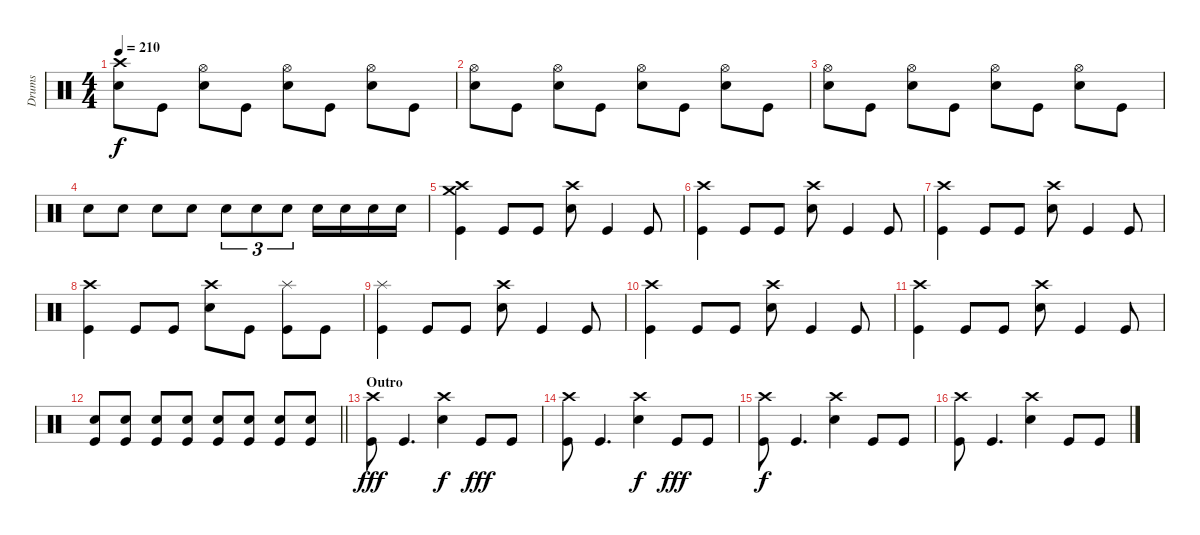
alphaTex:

\track ("Drums" "Drums") {instrument percussion}
\staff {score}
\articulation defaults
\ts (4 4)
\tempo 210
\clef neutral
\ks c
("Crash high (hit)" "Snare (hit) 2").8{dy f} "Kick (hit)".8 ("Hi-Hat (open)" "Snare (hit) 2").8 "Kick (hit)".8 ("Hi-Hat (open)" "Snare (hit) 2").8 "Kick (hit)".8 ("Hi-Hat (open)" "Snare (hit) 2").8 "Kick (hit)".8 |
("Hi-Hat (open)" "Snare (hit) 2").8 "Kick (hit)".8 ("Hi-Hat (open)" "Snare (hit) 2").8 "Kick (hit)".8 ("Hi-Hat (open)" "Snare (hit) 2").8 "Kick (hit)".8 ("Hi-Hat (open)" "Snare (hit) 2").8 "Kick (hit)".8 |
("Hi-Hat (open)" "Snare (hit) 2").8 "Kick (hit)".8 ("Hi-Hat (open)" "Snare (hit) 2").8 "Kick (hit)".8 ("Hi-Hat (open)" "Snare (hit) 2").8 "Kick (hit)".8 ("Hi-Hat (open)" "Snare (hit) 2").8 "Kick (hit)".8 |
"Snare (hit) 2".8 "Snare (hit) 2".8 "Snare (hit) 2".8 "Snare (hit) 2".8 "Snare (hit) 2".8{tu (3 2)} "Snare (hit) 2".8{tu (3 2)} "Snare (hit) 2".8{tu (3 2)} "Snare (hit) 2".16 "Snare (hit) 2".16 "Snare (hit) 2".16 "Snare (hit) 2".16 |
("Crash high (hit)" "Crash medium (hit)" "Kick (hit)").4 "Kick (hit)".8 "Kick (hit)".8 ("Crash high (hit)" "Snare (hit) 2").8 "Kick (hit)".4 "Kick (hit)".8 |
("Crash high (hit)" "Kick (hit)").4 "Kick (hit)".8 "Kick (hit)".8 ("Crash high (hit)" "Snare (hit) 2").8 "Kick (hit)".4 "Kick (hit)".8 |
("Crash high (hit)" "Kick (hit)").4 "Kick (hit)".8 "Kick (hit)".8 ("Crash high (hit)" "Snare (hit) 2").8 "Kick (hit)".4 "Kick (hit)".8 |
("Crash high (hit)" "Kick (hit)").4 "Kick (hit)".8 "Kick (hit)".8 ("Crash high (hit)" "Snare (hit) 2").8 "Kick (hit)".8 ("Splash (hit)" "Kick (hit)").8 "Kick (hit)".8 |
("Splash (hit)" "Kick (hit)").4 "Kick (hit)".8 "Kick (hit)".8 ("Crash high (hit)" "Snare (hit) 2").8 "Kick (hit)".4 "Kick (hit)".8 |
("Crash high (hit)" "Kick (hit)").4 "Kick (hit)".8 "Kick (hit)".8 ("Crash high (hit)" "Snare (hit) 2").8 "Kick (hit)".4 "Kick (hit)".8 |
("Crash high (hit)" "Kick (hit)").4 "Kick (hit)".8 "Kick (hit)".8 ("Crash high (hit)" "Snare (hit) 2").8 "Kick (hit)".4 "Kick (hit)".8 |
\barLineRight lightlight
("Snare (hit) 2" "Kick (hit)").8 ("Snare (hit) 2" "Kick (hit)").8 ("Snare (hit) 2" "Kick (hit)").8 ("Snare (hit) 2" "Kick (hit)").8 ("Snare (hit) 2" "Kick (hit)").8 ("Snare (hit) 2" "Kick (hit)").8 ("Snare (hit) 2" "Kick (hit)").8 ("Snare (hit) 2" "Kick (hit)").8 |
\section ("" "Outro")
("Crash high (hit)" "Kick (hit)").8{dy fff} "Kick (hit)".4{d} ("Crash high (hit)" "Snare (hit) 2").4{dy f} "Kick (hit)".8{dy fff} "Kick (hit)".8 |
("Crash high (hit)" "Kick (hit)").8 "Kick (hit)".4{d} ("Crash high (hit)" "Snare (hit) 2").4{dy f} "Kick (hit)".8{dy fff} "Kick (hit)".8 |
("Crash high (hit)" "Kick (hit)").8{dy f} "Kick (hit)".4{d} ("Crash high (hit)" "Snare (hit) 2").4 "Kick (hit)".8 "Kick (hit)".8 |
("Crash high (hit)" "Kick (hit)").8 "Kick (hit)".4{d} ("Crash high (hit)" "Snare (hit) 2").4 "Kick (hit)".8 "Kick (hit)".8
